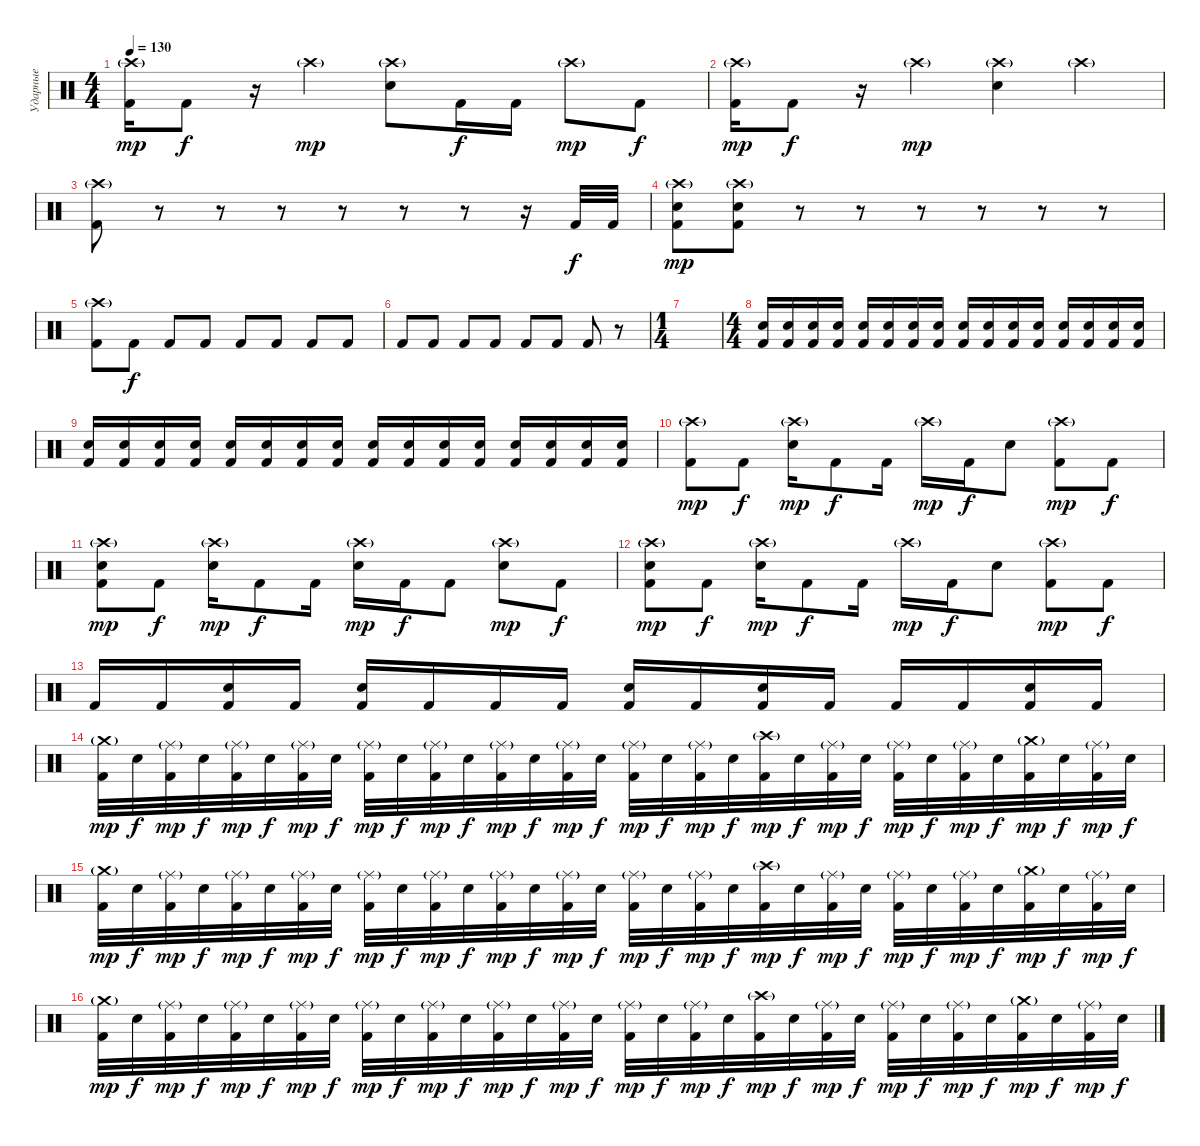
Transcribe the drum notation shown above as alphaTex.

\track ("Ударные" "Ударные") {instrument percussion}
\staff {score}
\articulation defaults
\ts (4 4)
\tempo 130
\clef neutral
\ks c
("Crash high (hit)"{g} "Kick (hit) 2").16{dy mp} "Kick (hit) 2".8{dy f} r.16 "Crash high (hit)"{g}.4{dy mp} ("Crash high (hit)"{g} "Electric Snare (hit)").8 "Kick (hit) 2".16{dy f} "Kick (hit) 2".16 "Crash high (hit)"{g}.8{dy mp} "Kick (hit) 2".8{dy f} |
("Crash high (hit)"{g} "Kick (hit) 2").16{dy mp} "Kick (hit) 2".8{dy f} r.16 "Crash high (hit)"{g}.4{dy mp} ("Crash high (hit)"{g} "Electric Snare (hit)").4 "Crash high (hit)"{g}.4 |
("Crash high (hit)"{g} "Kick (hit) 2").8 r.8 r.8 r.8 r.8 r.8 r.8 r.16 "Kick (hit) 2".32{dy f} "Kick (hit) 2".32 |
("Crash high (hit)"{g} "Electric Snare (hit)" "Kick (hit) 2").8{dy mp} ("Crash high (hit)"{g} "Electric Snare (hit)" "Kick (hit) 2").8 r.8 r.8 r.8 r.8 r.8 r.8 |
("Crash high (hit)"{g} "Kick (hit) 2").8 "Kick (hit) 2".8{dy f} "Kick (hit) 2".8 "Kick (hit) 2".8 "Kick (hit) 2".8 "Kick (hit) 2".8 "Kick (hit) 2".8 "Kick (hit) 2".8 |
"Kick (hit) 2".8 "Kick (hit) 2".8 "Kick (hit) 2".8 "Kick (hit) 2".8 "Kick (hit) 2".8 "Kick (hit) 2".8 "Kick (hit) 2".8 r.8 |
\ts (1 4)
|
\ts (4 4)
("Electric Snare (hit)" "Kick (hit) 2").16 ("Electric Snare (hit)" "Kick (hit) 2").16 ("Electric Snare (hit)" "Kick (hit) 2").16 ("Electric Snare (hit)" "Kick (hit) 2").16 ("Electric Snare (hit)" "Kick (hit) 2").16 ("Electric Snare (hit)" "Kick (hit) 2").16 ("Electric Snare (hit)" "Kick (hit) 2").16 ("Electric Snare (hit)" "Kick (hit) 2").16 ("Electric Snare (hit)" "Kick (hit) 2").16 ("Electric Snare (hit)" "Kick (hit) 2").16 ("Electric Snare (hit)" "Kick (hit) 2").16 ("Electric Snare (hit)" "Kick (hit) 2").16 ("Electric Snare (hit)" "Kick (hit) 2").16 ("Electric Snare (hit)" "Kick (hit) 2").16 ("Electric Snare (hit)" "Kick (hit) 2").16 ("Electric Snare (hit)" "Kick (hit) 2").16 |
("Electric Snare (hit)" "Kick (hit) 2").16 ("Electric Snare (hit)" "Kick (hit) 2").16 ("Electric Snare (hit)" "Kick (hit) 2").16 ("Electric Snare (hit)" "Kick (hit) 2").16 ("Electric Snare (hit)" "Kick (hit) 2").16 ("Electric Snare (hit)" "Kick (hit) 2").16 ("Electric Snare (hit)" "Kick (hit) 2").16 ("Electric Snare (hit)" "Kick (hit) 2").16 ("Electric Snare (hit)" "Kick (hit) 2").16 ("Electric Snare (hit)" "Kick (hit) 2").16 ("Electric Snare (hit)" "Kick (hit) 2").16 ("Electric Snare (hit)" "Kick (hit) 2").16 ("Electric Snare (hit)" "Kick (hit) 2").16 ("Electric Snare (hit)" "Kick (hit) 2").16 ("Electric Snare (hit)" "Kick (hit) 2").16 ("Electric Snare (hit)" "Kick (hit) 2").16 |
("Crash high (hit)"{g} "Kick (hit) 2").8{dy mp} "Kick (hit) 2".8{dy f} ("Crash high (hit)"{g} "Electric Snare (hit)").16{dy mp} "Kick (hit) 2".8{dy f} "Kick (hit) 2".16 "Crash high (hit)"{g}.16{dy mp} "Kick (hit) 2".16{dy f} "Electric Snare (hit)".8 ("Crash high (hit)"{g} "Kick (hit) 2").8{dy mp} "Kick (hit) 2".8{dy f} |
("Crash high (hit)"{g} "Electric Snare (hit)" "Kick (hit) 2").8{dy mp} "Kick (hit) 2".8{dy f} ("Crash high (hit)"{g} "Electric Snare (hit)").16{dy mp} "Kick (hit) 2".8{dy f} "Kick (hit) 2".16 ("Crash high (hit)"{g} "Electric Snare (hit)").16{dy mp} "Kick (hit) 2".16{dy f} "Kick (hit) 2".8 ("Crash high (hit)"{g} "Electric Snare (hit)").8{dy mp} "Kick (hit) 2".8{dy f} |
("Crash high (hit)"{g} "Electric Snare (hit)" "Kick (hit) 2").8{dy mp} "Kick (hit) 2".8{dy f} ("Crash high (hit)"{g} "Electric Snare (hit)").16{dy mp} "Kick (hit) 2".8{dy f} "Kick (hit) 2".16 "Crash high (hit)"{g}.16{dy mp} "Kick (hit) 2".16{dy f} "Electric Snare (hit)".8 ("Crash high (hit)"{g} "Kick (hit) 2").8{dy mp} "Kick (hit) 2".8{dy f} |
"Kick (hit) 2".16 "Kick (hit) 2".16 ("Electric Snare (hit)" "Kick (hit) 2").16 "Kick (hit) 2".16 ("Electric Snare (hit)" "Kick (hit) 2").16 "Kick (hit) 2".16 "Kick (hit) 2".16 "Kick (hit) 2".16 ("Electric Snare (hit)" "Kick (hit) 2").16 "Kick (hit) 2".16 ("Electric Snare (hit)" "Kick (hit) 2").16 "Kick (hit) 2".16 "Kick (hit) 2".16 "Kick (hit) 2".16 ("Electric Snare (hit)" "Kick (hit) 2").16 "Kick (hit) 2".16 |
("Crash medium (hit)"{g} "Kick (hit) 2").32{dy mp} "Electric Snare (hit)".32{dy f} ("Ride (middle)"{g} "Kick (hit) 2").32{dy mp} "Electric Snare (hit)".32{dy f} ("Ride (middle)"{g} "Kick (hit) 2").32{dy mp} "Electric Snare (hit)".32{dy f} ("Ride (middle)"{g} "Kick (hit) 2").32{dy mp} "Electric Snare (hit)".32{dy f} ("Ride (middle)"{g} "Kick (hit) 2").32{dy mp} "Electric Snare (hit)".32{dy f} ("Ride (middle)"{g} "Kick (hit) 2").32{dy mp} "Electric Snare (hit)".32{dy f} ("Ride (middle)"{g} "Kick (hit) 2").32{dy mp} "Electric Snare (hit)".32{dy f} ("Ride (middle)"{g} "Kick (hit) 2").32{dy mp} "Electric Snare (hit)".32{dy f} ("Ride (middle)"{g} "Kick (hit) 2").32{dy mp} "Electric Snare (hit)".32{dy f} ("Ride (middle)"{g} "Kick (hit) 2").32{dy mp} "Electric Snare (hit)".32{dy f} ("Crash high (hit)"{g} "Kick (hit) 2").32{dy mp} "Electric Snare (hit)".32{dy f} ("Ride (middle)"{g} "Kick (hit) 2").32{dy mp} "Electric Snare (hit)".32{dy f} ("Ride (middle)"{g} "Kick (hit) 2").32{dy mp} "Electric Snare (hit)".32{dy f} ("Ride (middle)"{g} "Kick (hit) 2").32{dy mp} "Electric Snare (hit)".32{dy f} ("Crash medium (hit)"{g} "Kick (hit) 2").32{dy mp} "Electric Snare (hit)".32{dy f} ("Ride (middle)"{g} "Kick (hit) 2").32{dy mp} "Electric Snare (hit)".32{dy f} |
("Crash medium (hit)"{g} "Kick (hit) 2").32{dy mp} "Electric Snare (hit)".32{dy f} ("Ride (middle)"{g} "Kick (hit) 2").32{dy mp} "Electric Snare (hit)".32{dy f} ("Ride (middle)"{g} "Kick (hit) 2").32{dy mp} "Electric Snare (hit)".32{dy f} ("Ride (middle)"{g} "Kick (hit) 2").32{dy mp} "Electric Snare (hit)".32{dy f} ("Ride (middle)"{g} "Kick (hit) 2").32{dy mp} "Electric Snare (hit)".32{dy f} ("Ride (middle)"{g} "Kick (hit) 2").32{dy mp} "Electric Snare (hit)".32{dy f} ("Ride (middle)"{g} "Kick (hit) 2").32{dy mp} "Electric Snare (hit)".32{dy f} ("Ride (middle)"{g} "Kick (hit) 2").32{dy mp} "Electric Snare (hit)".32{dy f} ("Ride (middle)"{g} "Kick (hit) 2").32{dy mp} "Electric Snare (hit)".32{dy f} ("Ride (middle)"{g} "Kick (hit) 2").32{dy mp} "Electric Snare (hit)".32{dy f} ("Crash high (hit)"{g} "Kick (hit) 2").32{dy mp} "Electric Snare (hit)".32{dy f} ("Ride (middle)"{g} "Kick (hit) 2").32{dy mp} "Electric Snare (hit)".32{dy f} ("Ride (middle)"{g} "Kick (hit) 2").32{dy mp} "Electric Snare (hit)".32{dy f} ("Ride (middle)"{g} "Kick (hit) 2").32{dy mp} "Electric Snare (hit)".32{dy f} ("Crash medium (hit)"{g} "Kick (hit) 2").32{dy mp} "Electric Snare (hit)".32{dy f} ("Ride (middle)"{g} "Kick (hit) 2").32{dy mp} "Electric Snare (hit)".32{dy f} |
("Crash medium (hit)"{g} "Kick (hit) 2").32{dy mp} "Electric Snare (hit)".32{dy f} ("Ride (middle)"{g} "Kick (hit) 2").32{dy mp} "Electric Snare (hit)".32{dy f} ("Ride (middle)"{g} "Kick (hit) 2").32{dy mp} "Electric Snare (hit)".32{dy f} ("Ride (middle)"{g} "Kick (hit) 2").32{dy mp} "Electric Snare (hit)".32{dy f} ("Ride (middle)"{g} "Kick (hit) 2").32{dy mp} "Electric Snare (hit)".32{dy f} ("Ride (middle)"{g} "Kick (hit) 2").32{dy mp} "Electric Snare (hit)".32{dy f} ("Ride (middle)"{g} "Kick (hit) 2").32{dy mp} "Electric Snare (hit)".32{dy f} ("Ride (middle)"{g} "Kick (hit) 2").32{dy mp} "Electric Snare (hit)".32{dy f} ("Ride (middle)"{g} "Kick (hit) 2").32{dy mp} "Electric Snare (hit)".32{dy f} ("Ride (middle)"{g} "Kick (hit) 2").32{dy mp} "Electric Snare (hit)".32{dy f} ("Crash high (hit)"{g} "Kick (hit) 2").32{dy mp} "Electric Snare (hit)".32{dy f} ("Ride (middle)"{g} "Kick (hit) 2").32{dy mp} "Electric Snare (hit)".32{dy f} ("Ride (middle)"{g} "Kick (hit) 2").32{dy mp} "Electric Snare (hit)".32{dy f} ("Ride (middle)"{g} "Kick (hit) 2").32{dy mp} "Electric Snare (hit)".32{dy f} ("Crash medium (hit)"{g} "Kick (hit) 2").32{dy mp} "Electric Snare (hit)".32{dy f} ("Ride (middle)"{g} "Kick (hit) 2").32{dy mp} "Electric Snare (hit)".32{dy f}
